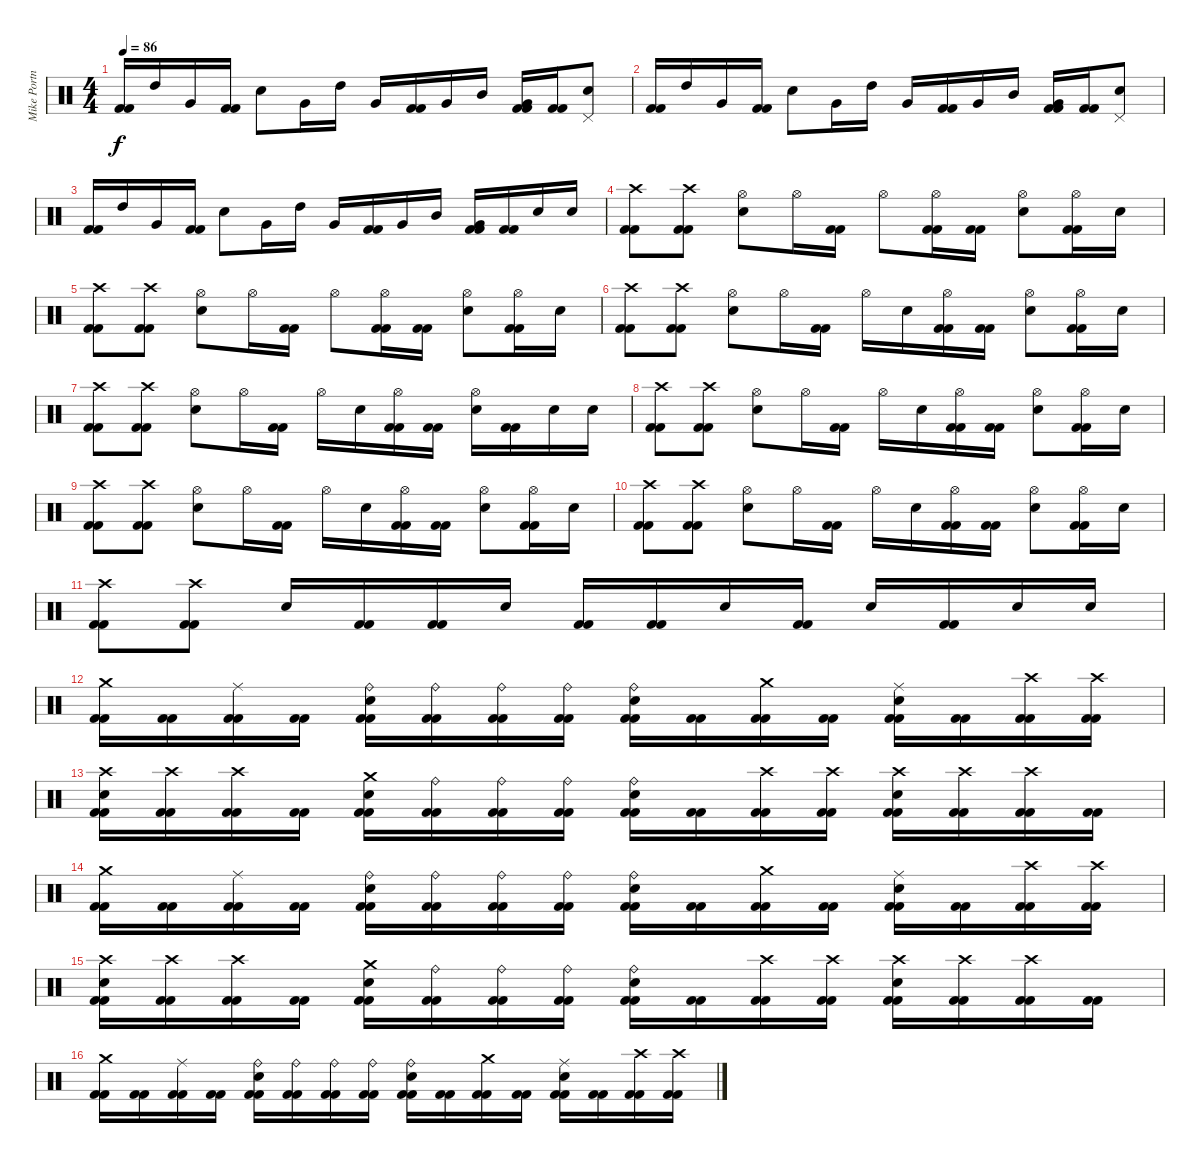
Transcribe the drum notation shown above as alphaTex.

\track ("Mike Portnoy - Drum" "Mike Portn") {instrument percussion}
\staff {score}
\articulation defaults
\ts (4 4)
\tempo 86
\clef neutral
\ks c
("Kick (hit) 2" "Kick (hit) 2").16{dy f} "High Tom (hit)".16 "Very Low Tom (hit)".16 ("Kick (hit) 2" "Kick (hit) 2").16 "Snare (hit) 2".8 "Very Low Tom (hit)".16 "High Tom (hit)".16 "Very Low Tom (hit)".16 ("Kick (hit) 2" "Kick (hit) 2").16 "Very Low Tom (hit)".16 "Mid Tom (hit)".16 ("Very Low Tom (hit)" "Kick (hit) 2" "Kick (hit) 2").16 ("Kick (hit) 2" "Kick (hit) 2").16 ("Pedal Hi-Hat (hit)" "Snare (hit) 2").8 |
("Kick (hit) 2" "Kick (hit) 2").16 "High Tom (hit)".16 "Very Low Tom (hit)".16 ("Kick (hit) 2" "Kick (hit) 2").16 "Snare (hit) 2".8 "Very Low Tom (hit)".16 "High Tom (hit)".16 "Very Low Tom (hit)".16 ("Kick (hit) 2" "Kick (hit) 2").16 "Very Low Tom (hit)".16 "Mid Tom (hit)".16 ("Very Low Tom (hit)" "Kick (hit) 2" "Kick (hit) 2").16 ("Kick (hit) 2" "Kick (hit) 2").16 ("Pedal Hi-Hat (hit)" "Snare (hit) 2").8 |
("Kick (hit) 2" "Kick (hit) 2").16 "High Tom (hit)".16 "Very Low Tom (hit)".16 ("Kick (hit) 2" "Kick (hit) 2").16 "Snare (hit) 2".8 "Very Low Tom (hit)".16 "High Tom (hit)".16 "Very Low Tom (hit)".16 ("Kick (hit) 2" "Kick (hit) 2").16 "Very Low Tom (hit)".16 "Mid Tom (hit)".16 ("Very Low Tom (hit)" "Kick (hit) 2" "Kick (hit) 2").16 ("Kick (hit) 2" "Kick (hit) 2").16 "Snare (hit) 2".16 "Snare (hit) 2".16 |
("Crash high (hit)" "Kick (hit) 2" "Kick (hit) 2").8 ("Crash high (hit)" "Kick (hit) 2" "Kick (hit) 2").8 ("Hi-Hat (open)" "Snare (hit) 2").8 "Hi-Hat (open)".16 ("Kick (hit) 2" "Kick (hit) 2").16 "Hi-Hat (open)".8 ("Hi-Hat (open)" "Kick (hit) 2" "Kick (hit) 2").16 ("Kick (hit) 2" "Kick (hit) 2").16 ("Hi-Hat (open)" "Snare (hit) 2").8 ("Hi-Hat (open)" "Kick (hit) 2" "Kick (hit) 2").16 "Snare (hit) 2".16 |
("Crash high (hit)" "Kick (hit) 2" "Kick (hit) 2").8 ("Crash high (hit)" "Kick (hit) 2" "Kick (hit) 2").8 ("Hi-Hat (open)" "Snare (hit) 2").8 "Hi-Hat (open)".16 ("Kick (hit) 2" "Kick (hit) 2").16 "Hi-Hat (open)".8 ("Hi-Hat (open)" "Kick (hit) 2" "Kick (hit) 2").16 ("Kick (hit) 2" "Kick (hit) 2").16 ("Hi-Hat (open)" "Snare (hit) 2").8 ("Hi-Hat (open)" "Kick (hit) 2" "Kick (hit) 2").16 "Snare (hit) 2".16 |
("Crash high (hit)" "Kick (hit) 2" "Kick (hit) 2").8 ("Crash high (hit)" "Kick (hit) 2" "Kick (hit) 2").8 ("Hi-Hat (open)" "Snare (hit) 2").8 "Hi-Hat (open)".16 ("Kick (hit) 2" "Kick (hit) 2").16 "Hi-Hat (open)".16 "Snare (hit) 2".16 ("Hi-Hat (open)" "Kick (hit) 2" "Kick (hit) 2").16 ("Kick (hit) 2" "Kick (hit) 2").16 ("Hi-Hat (open)" "Snare (hit) 2").8 ("Hi-Hat (open)" "Kick (hit) 2" "Kick (hit) 2").16 "Snare (hit) 2".16 |
("Crash high (hit)" "Kick (hit) 2" "Kick (hit) 2").8 ("Crash high (hit)" "Kick (hit) 2" "Kick (hit) 2").8 ("Hi-Hat (open)" "Snare (hit) 2").8 "Hi-Hat (open)".16 ("Kick (hit) 2" "Kick (hit) 2").16 "Hi-Hat (open)".16 "Snare (hit) 2".16 ("Hi-Hat (open)" "Kick (hit) 2" "Kick (hit) 2").16 ("Kick (hit) 2" "Kick (hit) 2").16 ("Hi-Hat (open)" "Snare (hit) 2").16 ("Kick (hit) 2" "Kick (hit) 2").16 "Snare (hit) 2".16 "Snare (hit) 2".16 |
("Crash high (hit)" "Kick (hit) 2" "Kick (hit) 2").8 ("Crash high (hit)" "Kick (hit) 2" "Kick (hit) 2").8 ("Hi-Hat (open)" "Snare (hit) 2").8 "Hi-Hat (open)".16 ("Kick (hit) 2" "Kick (hit) 2").16 "Hi-Hat (open)".16 "Snare (hit) 2".16 ("Hi-Hat (open)" "Kick (hit) 2" "Kick (hit) 2").16 ("Kick (hit) 2" "Kick (hit) 2").16 ("Hi-Hat (open)" "Snare (hit) 2").8 ("Hi-Hat (open)" "Kick (hit) 2" "Kick (hit) 2").16 "Snare (hit) 2".16 |
("Crash high (hit)" "Kick (hit) 2" "Kick (hit) 2").8 ("Crash high (hit)" "Kick (hit) 2" "Kick (hit) 2").8 ("Hi-Hat (open)" "Snare (hit) 2").8 "Hi-Hat (open)".16 ("Kick (hit) 2" "Kick (hit) 2").16 "Hi-Hat (open)".16 "Snare (hit) 2".16 ("Hi-Hat (open)" "Kick (hit) 2" "Kick (hit) 2").16 ("Kick (hit) 2" "Kick (hit) 2").16 ("Hi-Hat (open)" "Snare (hit) 2").8 ("Hi-Hat (open)" "Kick (hit) 2" "Kick (hit) 2").16 "Snare (hit) 2".16 |
("Crash high (hit)" "Kick (hit) 2" "Kick (hit) 2").8 ("Crash high (hit)" "Kick (hit) 2" "Kick (hit) 2").8 ("Hi-Hat (open)" "Snare (hit) 2").8 "Hi-Hat (open)".16 ("Kick (hit) 2" "Kick (hit) 2").16 "Hi-Hat (open)".16 "Snare (hit) 2".16 ("Hi-Hat (open)" "Kick (hit) 2" "Kick (hit) 2").16 ("Kick (hit) 2" "Kick (hit) 2").16 ("Hi-Hat (open)" "Snare (hit) 2").8 ("Hi-Hat (open)" "Kick (hit) 2" "Kick (hit) 2").16 "Snare (hit) 2".16 |
("Crash high (hit)" "Kick (hit) 2" "Kick (hit) 2").8 ("Crash high (hit)" "Kick (hit) 2" "Kick (hit) 2").8 "Snare (hit) 2".16 ("Kick (hit) 2" "Kick (hit) 2").16 ("Kick (hit) 2" "Kick (hit) 2").16 "Snare (hit) 2".16 ("Kick (hit) 2" "Kick (hit) 2").16 ("Kick (hit) 2" "Kick (hit) 2").16 "Snare (hit) 2".16 ("Kick (hit) 2" "Kick (hit) 2").16 "Snare (hit) 2".16 ("Kick (hit) 2" "Kick (hit) 2").16 "Snare (hit) 2".16 "Snare (hit) 2".16 |
("Crash medium (hit)" "Kick (hit) 2" "Kick (hit) 2").16 ("Kick (hit) 2" "Kick (hit) 2").16 ("Ride (middle)" "Kick (hit) 2" "Kick (hit) 2").16 ("Kick (hit) 2" "Kick (hit) 2").16 ("Ride (bell)" "Snare (hit) 2" "Kick (hit) 2" "Kick (hit) 2").16 ("Ride (bell)" "Kick (hit) 2" "Kick (hit) 2").16 ("Ride (bell)" "Kick (hit) 2" "Kick (hit) 2").16 ("Ride (bell)" "Kick (hit) 2" "Kick (hit) 2").16 ("Ride (bell)" "Snare (hit) 2" "Kick (hit) 2" "Kick (hit) 2").16 ("Kick (hit) 2" "Kick (hit) 2").16 ("Crash medium (hit)" "Kick (hit) 2" "Kick (hit) 2").16 ("Kick (hit) 2" "Kick (hit) 2").16 ("Ride (middle)" "Snare (hit) 2" "Kick (hit) 2" "Kick (hit) 2").16 ("Kick (hit) 2" "Kick (hit) 2").16 ("Crash high (hit)" "Kick (hit) 2" "Kick (hit) 2").16 ("Crash high (hit)" "Kick (hit) 2" "Kick (hit) 2").16 |
("Crash high (hit)" "Snare (hit) 2" "Kick (hit) 2" "Kick (hit) 2").16 ("Crash high (hit)" "Kick (hit) 2" "Kick (hit) 2").16 ("Crash high (hit)" "Kick (hit) 2" "Kick (hit) 2").16 ("Kick (hit) 2" "Kick (hit) 2").16 ("Crash medium (hit)" "Snare (hit) 2" "Kick (hit) 2" "Kick (hit) 2").16 ("Ride (bell)" "Kick (hit) 2" "Kick (hit) 2").16 ("Ride (bell)" "Kick (hit) 2" "Kick (hit) 2").16 ("Ride (bell)" "Kick (hit) 2" "Kick (hit) 2").16 ("Ride (bell)" "Snare (hit) 2" "Kick (hit) 2" "Kick (hit) 2").16 ("Kick (hit) 2" "Kick (hit) 2").16 ("Crash high (hit)" "Kick (hit) 2" "Kick (hit) 2").16 ("Crash high (hit)" "Kick (hit) 2" "Kick (hit) 2").16 ("Crash high (hit)" "Snare (hit) 2" "Kick (hit) 2" "Kick (hit) 2").16 ("Crash high (hit)" "Kick (hit) 2" "Kick (hit) 2").16 ("Crash high (hit)" "Kick (hit) 2" "Kick (hit) 2").16 ("Kick (hit) 2" "Kick (hit) 2").16 |
("Crash medium (hit)" "Kick (hit) 2" "Kick (hit) 2").16 ("Kick (hit) 2" "Kick (hit) 2").16 ("Ride (middle)" "Kick (hit) 2" "Kick (hit) 2").16 ("Kick (hit) 2" "Kick (hit) 2").16 ("Ride (bell)" "Snare (hit) 2" "Kick (hit) 2" "Kick (hit) 2").16 ("Ride (bell)" "Kick (hit) 2" "Kick (hit) 2").16 ("Ride (bell)" "Kick (hit) 2" "Kick (hit) 2").16 ("Ride (bell)" "Kick (hit) 2" "Kick (hit) 2").16 ("Ride (bell)" "Snare (hit) 2" "Kick (hit) 2" "Kick (hit) 2").16 ("Kick (hit) 2" "Kick (hit) 2").16 ("Crash medium (hit)" "Kick (hit) 2" "Kick (hit) 2").16 ("Kick (hit) 2" "Kick (hit) 2").16 ("Ride (middle)" "Snare (hit) 2" "Kick (hit) 2" "Kick (hit) 2").16 ("Kick (hit) 2" "Kick (hit) 2").16 ("Crash high (hit)" "Kick (hit) 2" "Kick (hit) 2").16 ("Crash high (hit)" "Kick (hit) 2" "Kick (hit) 2").16 |
("Crash high (hit)" "Snare (hit) 2" "Kick (hit) 2" "Kick (hit) 2").16 ("Crash high (hit)" "Kick (hit) 2" "Kick (hit) 2").16 ("Crash high (hit)" "Kick (hit) 2" "Kick (hit) 2").16 ("Kick (hit) 2" "Kick (hit) 2").16 ("Crash medium (hit)" "Snare (hit) 2" "Kick (hit) 2" "Kick (hit) 2").16 ("Ride (bell)" "Kick (hit) 2" "Kick (hit) 2").16 ("Ride (bell)" "Kick (hit) 2" "Kick (hit) 2").16 ("Ride (bell)" "Kick (hit) 2" "Kick (hit) 2").16 ("Ride (bell)" "Snare (hit) 2" "Kick (hit) 2" "Kick (hit) 2").16 ("Kick (hit) 2" "Kick (hit) 2").16 ("Crash high (hit)" "Kick (hit) 2" "Kick (hit) 2").16 ("Crash high (hit)" "Kick (hit) 2" "Kick (hit) 2").16 ("Crash high (hit)" "Snare (hit) 2" "Kick (hit) 2" "Kick (hit) 2").16 ("Crash high (hit)" "Kick (hit) 2" "Kick (hit) 2").16 ("Crash high (hit)" "Kick (hit) 2" "Kick (hit) 2").16 ("Kick (hit) 2" "Kick (hit) 2").16 |
("Crash medium (hit)" "Kick (hit) 2" "Kick (hit) 2").16 ("Kick (hit) 2" "Kick (hit) 2").16 ("Ride (middle)" "Kick (hit) 2" "Kick (hit) 2").16 ("Kick (hit) 2" "Kick (hit) 2").16 ("Ride (bell)" "Snare (hit) 2" "Kick (hit) 2" "Kick (hit) 2").16 ("Ride (bell)" "Kick (hit) 2" "Kick (hit) 2").16 ("Ride (bell)" "Kick (hit) 2" "Kick (hit) 2").16 ("Ride (bell)" "Kick (hit) 2" "Kick (hit) 2").16 ("Ride (bell)" "Snare (hit) 2" "Kick (hit) 2" "Kick (hit) 2").16 ("Kick (hit) 2" "Kick (hit) 2").16 ("Crash medium (hit)" "Kick (hit) 2" "Kick (hit) 2").16 ("Kick (hit) 2" "Kick (hit) 2").16 ("Ride (middle)" "Snare (hit) 2" "Kick (hit) 2" "Kick (hit) 2").16 ("Kick (hit) 2" "Kick (hit) 2").16 ("Crash high (hit)" "Kick (hit) 2" "Kick (hit) 2").16 ("Crash high (hit)" "Kick (hit) 2" "Kick (hit) 2").16
